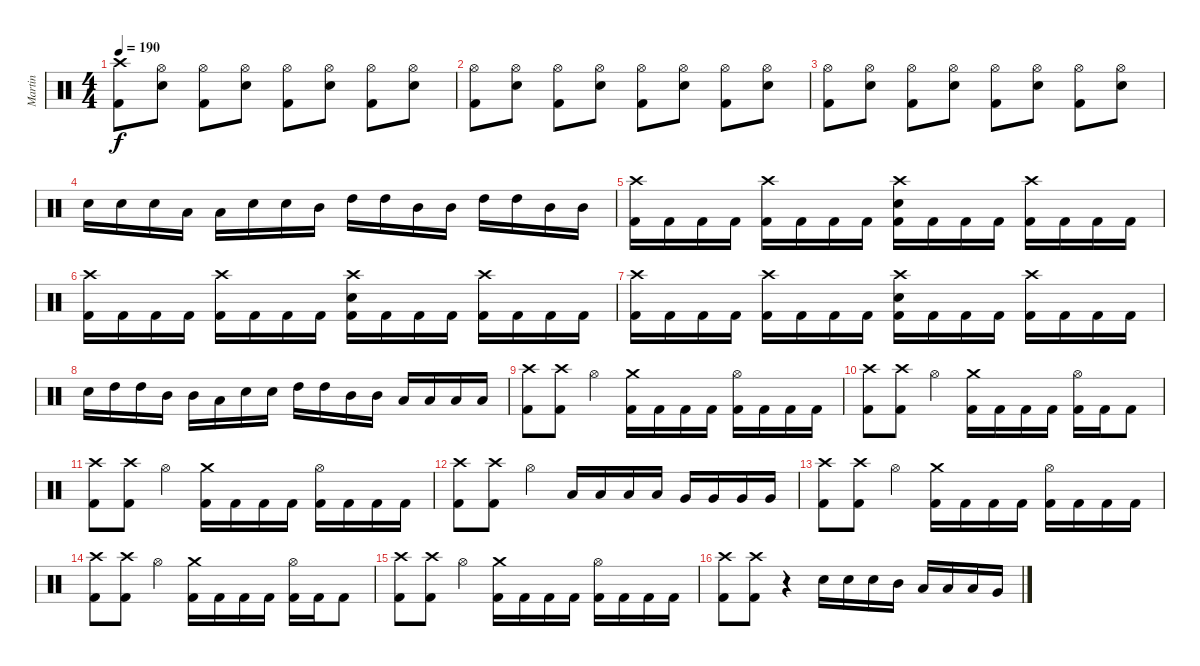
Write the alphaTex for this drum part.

\track ("Martin" "Martin") {instrument percussion}
\staff {score}
\articulation defaults
\ts (4 4)
\tempo 190
\clef neutral
\ks c
("Crash high (hit)" "Kick (hit) 2").8{dy f} ("Hi-Hat (open)" "Snare (hit) 2").8 ("Hi-Hat (open)" "Kick (hit) 2").8 ("Hi-Hat (open)" "Snare (hit) 2").8 ("Hi-Hat (open)" "Kick (hit) 2").8 ("Hi-Hat (open)" "Snare (hit) 2").8 ("Hi-Hat (open)" "Kick (hit) 2").8 ("Hi-Hat (open)" "Snare (hit) 2").8 |
("Hi-Hat (open)" "Kick (hit) 2").8 ("Hi-Hat (open)" "Snare (hit) 2").8 ("Hi-Hat (open)" "Kick (hit) 2").8 ("Hi-Hat (open)" "Snare (hit) 2").8 ("Hi-Hat (open)" "Kick (hit) 2").8 ("Hi-Hat (open)" "Snare (hit) 2").8 ("Hi-Hat (open)" "Kick (hit) 2").8 ("Hi-Hat (open)" "Snare (hit) 2").8 |
("Hi-Hat (open)" "Kick (hit) 2").8 ("Hi-Hat (open)" "Snare (hit) 2").8 ("Hi-Hat (open)" "Kick (hit) 2").8 ("Hi-Hat (open)" "Snare (hit) 2").8 ("Hi-Hat (open)" "Kick (hit) 2").8 ("Hi-Hat (open)" "Snare (hit) 2").8 ("Hi-Hat (open)" "Kick (hit) 2").8 ("Hi-Hat (open)" "Snare (hit) 2").8 |
"Snare (hit) 2".16 "Snare (hit) 2".16 "Snare (hit) 2".16 "Low Tom (hit)".16 "Low Tom (hit)".16 "Snare (hit) 2".16 "Snare (hit) 2".16 "Mid Tom (hit)".16 "High Tom (hit)".16 "High Tom (hit)".16 "Mid Tom (hit)".16 "Mid Tom (hit)".16 "High Tom (hit)".16 "High Tom (hit)".16 "Mid Tom (hit)".16 "Mid Tom (hit)".16 |
("Crash high (hit)" "Kick (hit) 2").16 "Kick (hit) 2".16 "Kick (hit) 2".16 "Kick (hit) 2".16 ("Crash high (hit)" "Kick (hit) 2").16 "Kick (hit) 2".16 "Kick (hit) 2".16 "Kick (hit) 2".16 ("Crash high (hit)" "Snare (hit) 2" "Kick (hit) 2").16 "Kick (hit) 2".16 "Kick (hit) 2".16 "Kick (hit) 2".16 ("Crash high (hit)" "Kick (hit) 2").16 "Kick (hit) 2".16 "Kick (hit) 2".16 "Kick (hit) 2".16 |
("Crash high (hit)" "Kick (hit) 2").16 "Kick (hit) 2".16 "Kick (hit) 2".16 "Kick (hit) 2".16 ("Crash high (hit)" "Kick (hit) 2").16 "Kick (hit) 2".16 "Kick (hit) 2".16 "Kick (hit) 2".16 ("Crash high (hit)" "Snare (hit) 2" "Kick (hit) 2").16 "Kick (hit) 2".16 "Kick (hit) 2".16 "Kick (hit) 2".16 ("Crash high (hit)" "Kick (hit) 2").16 "Kick (hit) 2".16 "Kick (hit) 2".16 "Kick (hit) 2".16 |
("Crash high (hit)" "Kick (hit) 2").16 "Kick (hit) 2".16 "Kick (hit) 2".16 "Kick (hit) 2".16 ("Crash high (hit)" "Kick (hit) 2").16 "Kick (hit) 2".16 "Kick (hit) 2".16 "Kick (hit) 2".16 ("Crash high (hit)" "Snare (hit) 2" "Kick (hit) 2").16 "Kick (hit) 2".16 "Kick (hit) 2".16 "Kick (hit) 2".16 ("Crash high (hit)" "Kick (hit) 2").16 "Kick (hit) 2".16 "Kick (hit) 2".16 "Kick (hit) 2".16 |
"Snare (hit) 2".16 "High Tom (hit)".16 "High Tom (hit)".16 "Mid Tom (hit)".16 "Mid Tom (hit)".16 "Low Tom (hit)".16 "Snare (hit) 2".16 "Snare (hit) 2".16 "High Tom (hit)".16 "High Tom (hit)".16 "Mid Tom (hit)".16 "Mid Tom (hit)".16 "Low Tom (hit)".16 "Low Tom (hit)".16 "Low Tom (hit)".16 "Low Tom (hit)".16 |
("Crash high (hit)" "Kick (hit) 2").8 ("Crash high (hit)" "Kick (hit) 2").8 "Hi-Hat (open)".4 ("Crash medium (hit)" "Kick (hit) 2").16 "Kick (hit) 2".16 "Kick (hit) 2".16 "Kick (hit) 2".16 ("Hi-Hat (open)" "Kick (hit) 2").16 "Kick (hit) 2".16 "Kick (hit) 2".16 "Kick (hit) 2".16 |
("Crash high (hit)" "Kick (hit) 2").8 ("Crash high (hit)" "Kick (hit) 2").8 "Hi-Hat (open)".4 ("Crash medium (hit)" "Kick (hit) 2").16 "Kick (hit) 2".16 "Kick (hit) 2".16 "Kick (hit) 2".16 ("Hi-Hat (open)" "Kick (hit) 2").16 "Kick (hit) 2".16 "Kick (hit) 2".8 |
("Crash high (hit)" "Kick (hit) 2").8 ("Crash high (hit)" "Kick (hit) 2").8 "Hi-Hat (open)".4 ("Crash medium (hit)" "Kick (hit) 2").16 "Kick (hit) 2".16 "Kick (hit) 2".16 "Kick (hit) 2".16 ("Hi-Hat (open)" "Kick (hit) 2").16 "Kick (hit) 2".16 "Kick (hit) 2".16 "Kick (hit) 2".16 |
("Crash high (hit)" "Kick (hit) 2").8 ("Crash high (hit)" "Kick (hit) 2").8 "Hi-Hat (open)".4 "Low Tom (hit)".16 "Low Tom (hit)".16 "Low Tom (hit)".16 "Low Tom (hit)".16 "Very Low Tom (hit)".16 "Very Low Tom (hit)".16 "Very Low Tom (hit)".16 "Very Low Tom (hit)".16 |
("Crash high (hit)" "Kick (hit) 2").8 ("Crash high (hit)" "Kick (hit) 2").8 "Hi-Hat (open)".4 ("Crash medium (hit)" "Kick (hit) 2").16 "Kick (hit) 2".16 "Kick (hit) 2".16 "Kick (hit) 2".16 ("Hi-Hat (open)" "Kick (hit) 2").16 "Kick (hit) 2".16 "Kick (hit) 2".16 "Kick (hit) 2".16 |
("Crash high (hit)" "Kick (hit) 2").8 ("Crash high (hit)" "Kick (hit) 2").8 "Hi-Hat (open)".4 ("Crash medium (hit)" "Kick (hit) 2").16 "Kick (hit) 2".16 "Kick (hit) 2".16 "Kick (hit) 2".16 ("Hi-Hat (open)" "Kick (hit) 2").16 "Kick (hit) 2".16 "Kick (hit) 2".8 |
("Crash high (hit)" "Kick (hit) 2").8 ("Crash high (hit)" "Kick (hit) 2").8 "Hi-Hat (open)".4 ("Crash medium (hit)" "Kick (hit) 2").16 "Kick (hit) 2".16 "Kick (hit) 2".16 "Kick (hit) 2".16 ("Hi-Hat (open)" "Kick (hit) 2").16 "Kick (hit) 2".16 "Kick (hit) 2".16 "Kick (hit) 2".16 |
("Crash high (hit)" "Kick (hit) 2").8 ("Crash high (hit)" "Kick (hit) 2").8 r.4 "Snare (hit) 2".16 "Snare (hit) 2".16 "Snare (hit) 2".16 "Mid Tom (hit)".16 "Low Tom (hit)".16 "Low Tom (hit)".16 "Low Tom (hit)".16 "Very Low Tom (hit)".16
